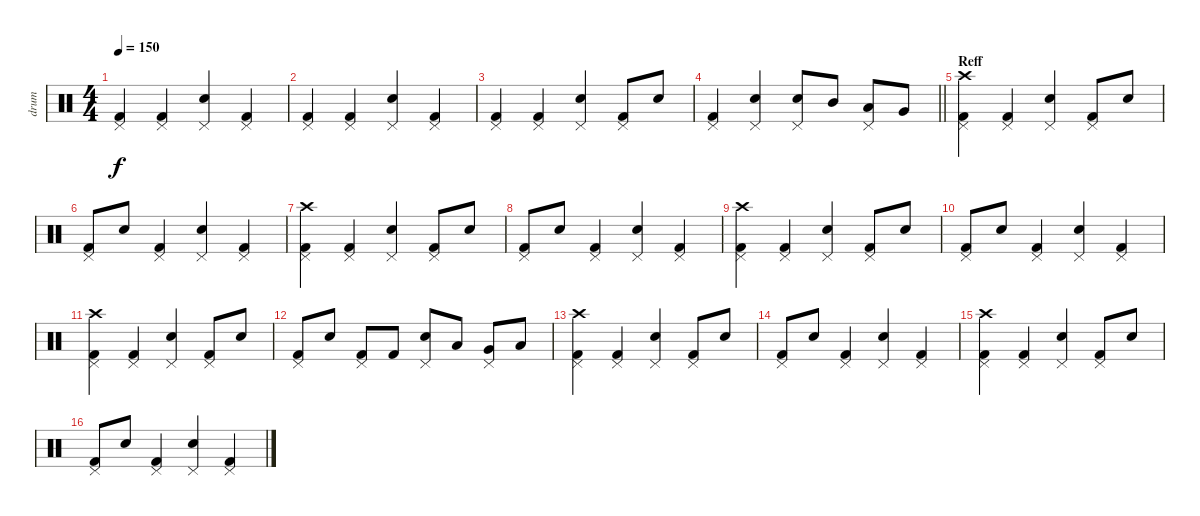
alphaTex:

\track ("drum" "drum") {instrument percussion}
\staff {score}
\articulation defaults
\ts (4 4)
\tempo 150
\clef neutral
\ks c
("Pedal Hi-Hat (hit)" "Kick (hit) 2").4{dy f} ("Pedal Hi-Hat (hit)" "Kick (hit) 2").4 ("Pedal Hi-Hat (hit)" "Electric Snare (hit)").4 ("Pedal Hi-Hat (hit)" "Kick (hit) 2").4 |
("Pedal Hi-Hat (hit)" "Kick (hit) 2").4 ("Pedal Hi-Hat (hit)" "Kick (hit) 2").4 ("Pedal Hi-Hat (hit)" "Electric Snare (hit)").4 ("Pedal Hi-Hat (hit)" "Kick (hit) 2").4 |
("Pedal Hi-Hat (hit)" "Kick (hit) 2").4 ("Pedal Hi-Hat (hit)" "Kick (hit) 2").4 ("Pedal Hi-Hat (hit)" "Electric Snare (hit)").4 ("Pedal Hi-Hat (hit)" "Kick (hit) 2").8 "Electric Snare (hit)".8 |
\barLineRight lightlight
("Pedal Hi-Hat (hit)" "Kick (hit) 2").4 ("Pedal Hi-Hat (hit)" "Electric Snare (hit)").4 ("Pedal Hi-Hat (hit)" "Electric Snare (hit)").8 "Mid Tom (hit)".8 ("Pedal Hi-Hat (hit)" "Low Tom (hit)").8 "Very Low Tom (hit)".8 |
\section ("" "Reff")
("Crash high (hit)" "Pedal Hi-Hat (hit)" "Kick (hit) 2").4 ("Pedal Hi-Hat (hit)" "Kick (hit) 2").4 ("Pedal Hi-Hat (hit)" "Electric Snare (hit)").4 ("Pedal Hi-Hat (hit)" "Kick (hit) 2").8 "Electric Snare (hit)".8 |
("Pedal Hi-Hat (hit)" "Kick (hit) 2").8 "Electric Snare (hit)".8 ("Pedal Hi-Hat (hit)" "Kick (hit) 2").4 ("Pedal Hi-Hat (hit)" "Electric Snare (hit)").4 ("Pedal Hi-Hat (hit)" "Kick (hit) 2").4 |
("Crash high (hit)" "Pedal Hi-Hat (hit)" "Kick (hit) 2").4 ("Pedal Hi-Hat (hit)" "Kick (hit) 2").4 ("Pedal Hi-Hat (hit)" "Electric Snare (hit)").4 ("Pedal Hi-Hat (hit)" "Kick (hit) 2").8 "Electric Snare (hit)".8 |
("Pedal Hi-Hat (hit)" "Kick (hit) 2").8 "Electric Snare (hit)".8 ("Pedal Hi-Hat (hit)" "Kick (hit) 2").4 ("Pedal Hi-Hat (hit)" "Electric Snare (hit)").4 ("Pedal Hi-Hat (hit)" "Kick (hit) 2").4 |
("Crash high (hit)" "Pedal Hi-Hat (hit)" "Kick (hit) 2").4 ("Pedal Hi-Hat (hit)" "Kick (hit) 2").4 ("Pedal Hi-Hat (hit)" "Electric Snare (hit)").4 ("Pedal Hi-Hat (hit)" "Kick (hit) 2").8 "Electric Snare (hit)".8 |
("Pedal Hi-Hat (hit)" "Kick (hit) 2").8 "Electric Snare (hit)".8 ("Pedal Hi-Hat (hit)" "Kick (hit) 2").4 ("Pedal Hi-Hat (hit)" "Electric Snare (hit)").4 ("Pedal Hi-Hat (hit)" "Kick (hit) 2").4 |
("Crash high (hit)" "Pedal Hi-Hat (hit)" "Kick (hit) 2").4 ("Pedal Hi-Hat (hit)" "Kick (hit) 2").4 ("Pedal Hi-Hat (hit)" "Electric Snare (hit)").4 ("Pedal Hi-Hat (hit)" "Kick (hit) 2").8 "Electric Snare (hit)".8 |
("Pedal Hi-Hat (hit)" "Kick (hit) 2").8 "Electric Snare (hit)".8 ("Pedal Hi-Hat (hit)" "Kick (hit) 2").8 "Kick (hit) 2".8 ("Pedal Hi-Hat (hit)" "Electric Snare (hit)").8 "Low Tom (hit)".8 ("Pedal Hi-Hat (hit)" "Very Low Tom (hit)").8 "Low Floor Tom (hit)".8 |
("Crash high (hit)" "Pedal Hi-Hat (hit)" "Kick (hit) 2").4 ("Pedal Hi-Hat (hit)" "Kick (hit) 2").4 ("Pedal Hi-Hat (hit)" "Electric Snare (hit)").4 ("Pedal Hi-Hat (hit)" "Kick (hit) 2").8 "Electric Snare (hit)".8 |
("Pedal Hi-Hat (hit)" "Kick (hit) 2").8 "Electric Snare (hit)".8 ("Pedal Hi-Hat (hit)" "Kick (hit) 2").4 ("Pedal Hi-Hat (hit)" "Electric Snare (hit)").4 ("Pedal Hi-Hat (hit)" "Kick (hit) 2").4 |
("Crash high (hit)" "Pedal Hi-Hat (hit)" "Kick (hit) 2").4 ("Pedal Hi-Hat (hit)" "Kick (hit) 2").4 ("Pedal Hi-Hat (hit)" "Electric Snare (hit)").4 ("Pedal Hi-Hat (hit)" "Kick (hit) 2").8 "Electric Snare (hit)".8 |
("Pedal Hi-Hat (hit)" "Kick (hit) 2").8 "Electric Snare (hit)".8 ("Pedal Hi-Hat (hit)" "Kick (hit) 2").4 ("Pedal Hi-Hat (hit)" "Electric Snare (hit)").4 ("Pedal Hi-Hat (hit)" "Kick (hit) 2").4
